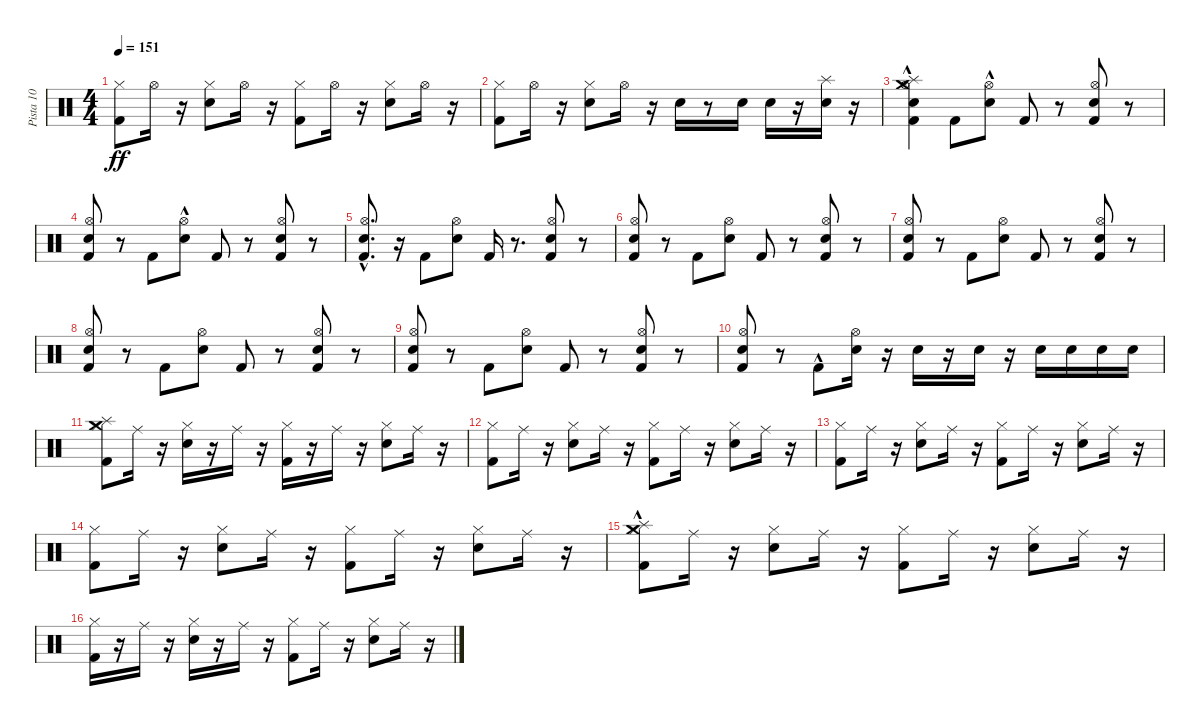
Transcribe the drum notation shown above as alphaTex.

\track ("Pista 10" "Pista 10") {instrument percussion}
\staff {score}
\articulation defaults
\ts (4 4)
\tempo 151
\clef neutral
\ks c
("Hi-Hat (closed)" "Kick (hit) 2").8{dy ff} "Hi-Hat (open)".16 r.16 ("Hi-Hat (closed)" "Snare (hit) 2").8 "Hi-Hat (open)".16 r.16 ("Hi-Hat (closed)" "Kick (hit) 2").8 "Hi-Hat (open)".16 r.16 ("Hi-Hat (closed)" "Snare (hit) 2").8 "Hi-Hat (open)".16 r.16 |
("Kick (hit) 2" "Hi-Hat (closed)").8 "Hi-Hat (open)".16 r.16 ("Snare (hit) 2" "Hi-Hat (closed)").8 "Hi-Hat (open)".16 r.16 "Snare (hit) 2".16 r.8 "Snare (hit) 2".16 "Snare (hit) 2".16 r.16 ("Snare (hit) 2" "Splash (hit)").16 r.16 |
("Hi-Hat (open)"{hac} "Snare (hit) 2"{hac} "Kick (hit) 2" "Splash (hit)" "Crash medium (hit)").4 "Kick (hit) 2".8 ("Snare (hit) 2"{hac} "Hi-Hat (open)"{hac}).8 "Kick (hit) 2".8 r.8 ("Hi-Hat (open)" "Snare (hit) 2" "Kick (hit) 2").8 r.8 |
("Hi-Hat (open)" "Snare (hit) 2" "Kick (hit) 2").8 r.8 "Kick (hit) 2".8 ("Snare (hit) 2"{hac} "Hi-Hat (open)").8 "Kick (hit) 2".8 r.8 ("Kick (hit) 2" "Snare (hit) 2" "Hi-Hat (open)").8 r.8 |
("Kick (hit) 2" "Hi-Hat (open)"{hac} "Snare (hit) 2"{hac}).8{d} r.16 "Kick (hit) 2".8 ("Hi-Hat (open)" "Snare (hit) 2").8 "Kick (hit) 2".16 r.8{d} ("Snare (hit) 2" "Hi-Hat (open)" "Kick (hit) 2").8 r.8 |
("Hi-Hat (open)" "Snare (hit) 2" "Kick (hit) 2").8 r.8 "Kick (hit) 2".8 ("Hi-Hat (open)" "Snare (hit) 2").8 "Kick (hit) 2".8 r.8 ("Snare (hit) 2" "Hi-Hat (open)" "Kick (hit) 2").8 r.8 |
("Kick (hit) 2" "Snare (hit) 2" "Hi-Hat (open)").8 r.8 "Kick (hit) 2".8 ("Snare (hit) 2" "Hi-Hat (open)").8 "Kick (hit) 2".8 r.8 ("Snare (hit) 2" "Hi-Hat (open)" "Kick (hit) 2").8 r.8 |
("Snare (hit) 2" "Hi-Hat (open)" "Kick (hit) 2").8 r.8 "Kick (hit) 2".8 ("Hi-Hat (open)" "Snare (hit) 2").8 "Kick (hit) 2".8 r.8 ("Hi-Hat (open)" "Snare (hit) 2" "Kick (hit) 2").8 r.8 |
("Snare (hit) 2" "Hi-Hat (open)" "Kick (hit) 2").8 r.8 "Kick (hit) 2".8 ("Hi-Hat (open)" "Snare (hit) 2").8 "Kick (hit) 2".8 r.8 ("Kick (hit) 2" "Hi-Hat (open)" "Snare (hit) 2").8 r.8 |
("Kick (hit) 2" "Hi-Hat (open)" "Snare (hit) 2").8 r.8 "Kick (hit) 2"{hac}.8 ("Hi-Hat (open)" "Snare (hit) 2").16 r.16 "Snare (hit) 2".16 r.16 "Snare (hit) 2".16 r.16 "Snare (hit) 2".16 "Snare (hit) 2".16 "Snare (hit) 2".16 "Snare (hit) 2".16 |
("Splash (hit)" "Crash medium (hit)" "Hi-Hat (closed)" "Kick (hit) 2").8 "Ride (middle)".16 r.16 ("Hi-Hat (closed)" "Snare (hit) 2").16 r.16 "Ride (middle)".16 r.16 ("Hi-Hat (closed)" "Kick (hit) 2").16 r.16 "Ride (middle)".16 r.16 ("Hi-Hat (closed)" "Snare (hit) 2").8 "Ride (middle)".16 r.16 |
("Hi-Hat (closed)" "Kick (hit) 2").8 "Ride (middle)".16 r.16 ("Snare (hit) 2" "Hi-Hat (closed)").8 "Ride (middle)".16 r.16 ("Kick (hit) 2" "Hi-Hat (closed)").8 "Ride (middle)".16 r.16 ("Snare (hit) 2" "Hi-Hat (closed)").8 "Ride (middle)".16 r.16 |
("Hi-Hat (closed)" "Kick (hit) 2").8 "Ride (middle)".16 r.16 ("Hi-Hat (closed)" "Snare (hit) 2").8 "Ride (middle)".16 r.16 ("Hi-Hat (closed)" "Kick (hit) 2").8 "Ride (middle)".16 r.16 ("Hi-Hat (closed)" "Snare (hit) 2").8 "Ride (middle)".16 r.16 |
("Hi-Hat (closed)" "Kick (hit) 2").8 "Ride (middle)".16 r.16 ("Hi-Hat (closed)" "Snare (hit) 2").8 "Ride (middle)".16 r.16 ("Hi-Hat (closed)" "Kick (hit) 2").8 "Ride (middle)".16 r.16 ("Snare (hit) 2" "Hi-Hat (closed)").8 "Ride (middle)".16 r.16 |
("Kick (hit) 2" "Hi-Hat (closed)" "Splash (hit)"{hac} "Crash medium (hit)"{hac}).8 "Ride (middle)".16 r.16 ("Snare (hit) 2" "Hi-Hat (closed)").8 "Ride (middle)".16 r.16 ("Hi-Hat (closed)" "Kick (hit) 2").8 "Ride (middle)".16 r.16 ("Hi-Hat (closed)" "Snare (hit) 2").8 "Ride (middle)".16 r.16 |
("Hi-Hat (closed)" "Kick (hit) 2").16 r.16 "Ride (middle)".16 r.16 ("Hi-Hat (closed)" "Snare (hit) 2").16 r.16 "Ride (middle)".16 r.16 ("Hi-Hat (closed)" "Kick (hit) 2").8 "Ride (middle)".16 r.16 ("Hi-Hat (closed)" "Snare (hit) 2").8 "Ride (middle)".16 r.16
